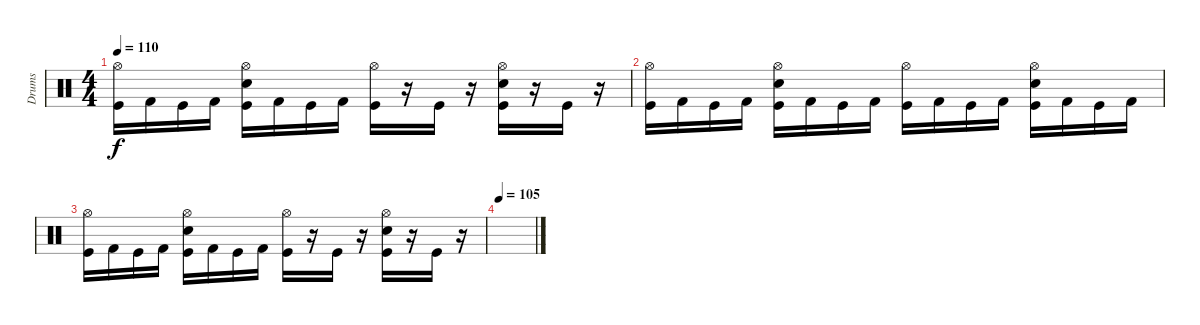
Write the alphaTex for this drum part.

\track ("Drums" "Drums") {instrument percussion}
\staff {score}
\articulation defaults
\ts (4 4)
\tempo 110
\clef neutral
\ks c
("Hi-Hat (open)" "Kick (hit)").16{dy f} "Kick (hit) 2".16 "Kick (hit)".16 "Kick (hit) 2".16 ("Hi-Hat (open)" "Snare (hit) 2" "Kick (hit)").16 "Kick (hit) 2".16 "Kick (hit)".16 "Kick (hit) 2".16 ("Hi-Hat (open)" "Kick (hit)").16 r.16 "Kick (hit)".16 r.16 ("Hi-Hat (open)" "Snare (hit) 2" "Kick (hit)").16 r.16 "Kick (hit)".16 r.16 |
("Hi-Hat (open)" "Kick (hit)").16 "Kick (hit) 2".16 "Kick (hit)".16 "Kick (hit) 2".16 ("Hi-Hat (open)" "Snare (hit) 2" "Kick (hit)").16 "Kick (hit) 2".16 "Kick (hit)".16 "Kick (hit) 2".16 ("Hi-Hat (open)" "Kick (hit)").16 "Kick (hit) 2".16 "Kick (hit)".16 "Kick (hit) 2".16 ("Hi-Hat (open)" "Snare (hit) 2" "Kick (hit)").16 "Kick (hit) 2".16 "Kick (hit)".16 "Kick (hit) 2".16 |
("Hi-Hat (open)" "Kick (hit)").16 "Kick (hit) 2".16 "Kick (hit)".16 "Kick (hit) 2".16 ("Hi-Hat (open)" "Snare (hit) 2" "Kick (hit)").16 "Kick (hit) 2".16 "Kick (hit)".16 "Kick (hit) 2".16 ("Hi-Hat (open)" "Kick (hit)").16 r.16 "Kick (hit)".16 r.16 ("Hi-Hat (open)" "Snare (hit) 2" "Kick (hit)").16 r.16 "Kick (hit)".16 r.16 |
\tempo 105
